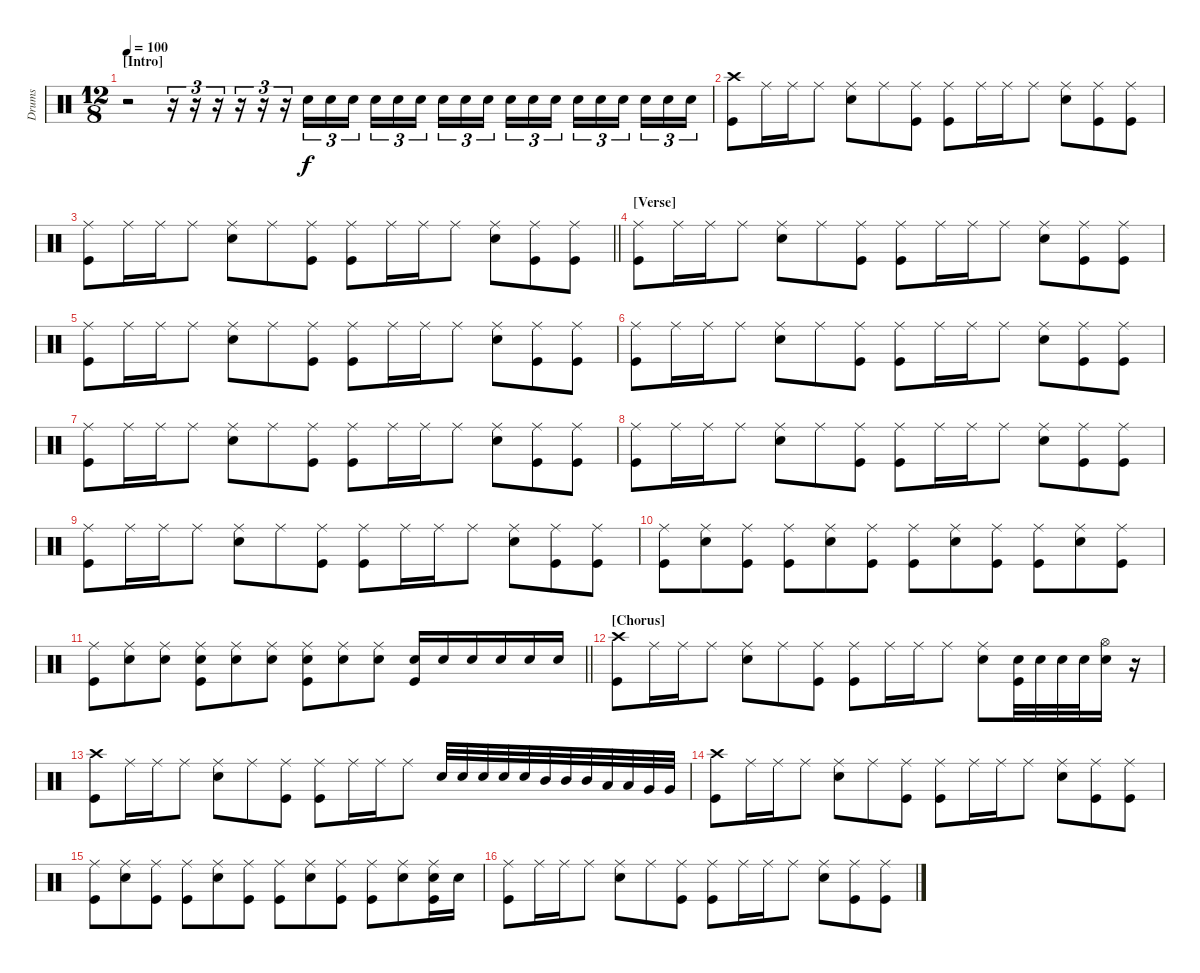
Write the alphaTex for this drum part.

\track ("Drums" "Drums") {instrument percussion}
\staff {score}
\articulation defaults
\ts (12 8)
\section ("" "[Intro]")
\tempo 100
\clef neutral
\ks c
r.2{dy f} r.16{tu (3 2)} r.16{tu (3 2)} r.16{tu (3 2)} r.16{tu (3 2)} r.16{tu (3 2)} r.16{tu (3 2)} "Electric Snare (hit)".16{tu (3 2)} "Electric Snare (hit)".16{tu (3 2)} "Electric Snare (hit)".16{tu (3 2) beam splitsecondary} "Electric Snare (hit)".16{tu (3 2)} "Electric Snare (hit)".16{tu (3 2)} "Electric Snare (hit)".16{tu (3 2) beam splitsecondary} "Electric Snare (hit)".16{tu (3 2)} "Electric Snare (hit)".16{tu (3 2)} "Electric Snare (hit)".16{tu (3 2)} "Electric Snare (hit)".16{tu (3 2)} "Electric Snare (hit)".16{tu (3 2)} "Electric Snare (hit)".16{tu (3 2) beam splitsecondary} "Electric Snare (hit)".16{tu (3 2)} "Electric Snare (hit)".16{tu (3 2)} "Electric Snare (hit)".16{tu (3 2) beam splitsecondary} "Electric Snare (hit)".16{tu (3 2)} "Electric Snare (hit)".16{tu (3 2)} "Electric Snare (hit)".16{tu (3 2)} |
("Crash high (hit)" "Kick (hit)").8 "Ride (middle)".16 "Ride (middle)".16 "Ride (middle)".8 ("Ride (middle)" "Electric Snare (hit)").8 "Ride (middle)".8 ("Ride (middle)" "Kick (hit)").8 ("Ride (middle)" "Kick (hit)").8 "Ride (middle)".16 "Ride (middle)".16 "Ride (middle)".8 ("Ride (middle)" "Electric Snare (hit)").8 ("Ride (middle)" "Kick (hit)").8 ("Ride (middle)" "Kick (hit)").8 |
\barLineRight lightlight
("Ride (middle)" "Kick (hit)").8 "Ride (middle)".16 "Ride (middle)".16 "Ride (middle)".8 ("Ride (middle)" "Electric Snare (hit)").8 "Ride (middle)".8 ("Ride (middle)" "Kick (hit)").8 ("Ride (middle)" "Kick (hit)").8 "Ride (middle)".16 "Ride (middle)".16 "Ride (middle)".8 ("Ride (middle)" "Electric Snare (hit)").8 ("Ride (middle)" "Kick (hit)").8 ("Ride (middle)" "Kick (hit)").8 |
\section ("" "[Verse]")
("Ride (middle)" "Kick (hit)").8 "Ride (middle)".16 "Ride (middle)".16 "Ride (middle)".8 ("Ride (middle)" "Electric Snare (hit)").8 "Ride (middle)".8 ("Ride (middle)" "Kick (hit)").8 ("Ride (middle)" "Kick (hit)").8 "Ride (middle)".16 "Ride (middle)".16 "Ride (middle)".8 ("Ride (middle)" "Electric Snare (hit)").8 ("Ride (middle)" "Kick (hit)").8 ("Ride (middle)" "Kick (hit)").8 |
("Ride (middle)" "Kick (hit)").8 "Ride (middle)".16 "Ride (middle)".16 "Ride (middle)".8 ("Ride (middle)" "Electric Snare (hit)").8 "Ride (middle)".8 ("Ride (middle)" "Kick (hit)").8 ("Ride (middle)" "Kick (hit)").8 "Ride (middle)".16 "Ride (middle)".16 "Ride (middle)".8 ("Ride (middle)" "Electric Snare (hit)").8 ("Ride (middle)" "Kick (hit)").8 ("Ride (middle)" "Kick (hit)").8 |
("Ride (middle)" "Kick (hit)").8 "Ride (middle)".16 "Ride (middle)".16 "Ride (middle)".8 ("Ride (middle)" "Electric Snare (hit)").8 "Ride (middle)".8 ("Ride (middle)" "Kick (hit)").8 ("Ride (middle)" "Kick (hit)").8 "Ride (middle)".16 "Ride (middle)".16 "Ride (middle)".8 ("Ride (middle)" "Electric Snare (hit)").8 ("Ride (middle)" "Kick (hit)").8 ("Ride (middle)" "Kick (hit)").8 |
("Ride (middle)" "Kick (hit)").8 "Ride (middle)".16 "Ride (middle)".16 "Ride (middle)".8 ("Ride (middle)" "Electric Snare (hit)").8 "Ride (middle)".8 ("Ride (middle)" "Kick (hit)").8 ("Ride (middle)" "Kick (hit)").8 "Ride (middle)".16 "Ride (middle)".16 "Ride (middle)".8 ("Ride (middle)" "Electric Snare (hit)").8 ("Ride (middle)" "Kick (hit)").8 ("Ride (middle)" "Kick (hit)").8 |
("Ride (middle)" "Kick (hit)").8 "Ride (middle)".16 "Ride (middle)".16 "Ride (middle)".8 ("Ride (middle)" "Electric Snare (hit)").8 "Ride (middle)".8 ("Ride (middle)" "Kick (hit)").8 ("Ride (middle)" "Kick (hit)").8 "Ride (middle)".16 "Ride (middle)".16 "Ride (middle)".8 ("Ride (middle)" "Electric Snare (hit)").8 ("Ride (middle)" "Kick (hit)").8 ("Ride (middle)" "Kick (hit)").8 |
("Ride (middle)" "Kick (hit)").8 "Ride (middle)".16 "Ride (middle)".16 "Ride (middle)".8 ("Ride (middle)" "Electric Snare (hit)").8 "Ride (middle)".8 ("Ride (middle)" "Kick (hit)").8 ("Ride (middle)" "Kick (hit)").8 "Ride (middle)".16 "Ride (middle)".16 "Ride (middle)".8 ("Ride (middle)" "Electric Snare (hit)").8 ("Ride (middle)" "Kick (hit)").8 ("Ride (middle)" "Kick (hit)").8 |
("Ride (middle)" "Kick (hit)").8 ("Ride (middle)" "Electric Snare (hit)").8 ("Ride (middle)" "Kick (hit)").8 ("Ride (middle)" "Kick (hit)").8 ("Ride (middle)" "Electric Snare (hit)").8 ("Ride (middle)" "Kick (hit)").8 ("Ride (middle)" "Kick (hit)").8 ("Ride (middle)" "Electric Snare (hit)").8 ("Ride (middle)" "Kick (hit)").8 ("Ride (middle)" "Kick (hit)").8 ("Ride (middle)" "Electric Snare (hit)").8 ("Ride (middle)" "Kick (hit)").8 |
\barLineRight lightlight
("Ride (middle)" "Kick (hit)").8 ("Ride (middle)" "Electric Snare (hit)").8 ("Ride (middle)" "Electric Snare (hit)").8 ("Ride (middle)" "Electric Snare (hit)" "Kick (hit)").8 ("Ride (middle)" "Electric Snare (hit)").8 ("Ride (middle)" "Electric Snare (hit)").8 ("Ride (middle)" "Electric Snare (hit)" "Kick (hit)").8 ("Ride (middle)" "Electric Snare (hit)").8 ("Ride (middle)" "Electric Snare (hit)").8 ("Electric Snare (hit)" "Kick (hit)").16 "Electric Snare (hit)".16 "Electric Snare (hit)".16 "Electric Snare (hit)".16 "Electric Snare (hit)".16 "Electric Snare (hit)".16 |
\section ("" "[Chorus]")
("Crash high (hit)" "Kick (hit)").8 "Ride (middle)".16 "Ride (middle)".16 "Ride (middle)".8 ("Ride (middle)" "Electric Snare (hit)").8 "Ride (middle)".8 ("Ride (middle)" "Kick (hit)").8 ("Ride (middle)" "Kick (hit)").8 "Ride (middle)".16 "Ride (middle)".16 "Ride (middle)".8 ("Ride (middle)" "Electric Snare (hit)").8 ("Electric Snare (hit)" "Kick (hit)").32 "Electric Snare (hit)".32 "Electric Snare (hit)".32 "Electric Snare (hit)".32 ("Hi-Hat (open)" "Electric Snare (hit)").16 r.16 |
("Crash high (hit)" "Kick (hit)").8 "Ride (middle)".16 "Ride (middle)".16 "Ride (middle)".8 ("Ride (middle)" "Electric Snare (hit)").8 "Ride (middle)".8 ("Ride (middle)" "Kick (hit)").8 ("Ride (middle)" "Kick (hit)").8 "Ride (middle)".16 "Ride (middle)".16 "Ride (middle)".8 "Electric Snare (hit)".32 "Electric Snare (hit)".32 "Electric Snare (hit)".32 "Electric Snare (hit)".32 "Electric Snare (hit)".32 "Mid Tom (hit)".32 "Mid Tom (hit)".32 "Mid Tom (hit)".32 "Low Tom (hit)".32 "Low Tom (hit)".32 "Very Low Tom (hit)".32 "Very Low Tom (hit)".32 |
("Crash high (hit)" "Kick (hit)").8 "Ride (middle)".16 "Ride (middle)".16 "Ride (middle)".8 ("Ride (middle)" "Electric Snare (hit)").8 "Ride (middle)".8 ("Ride (middle)" "Kick (hit)").8 ("Ride (middle)" "Kick (hit)").8 "Ride (middle)".16 "Ride (middle)".16 "Ride (middle)".8 ("Ride (middle)" "Electric Snare (hit)").8 ("Ride (middle)" "Kick (hit)").8 ("Ride (middle)" "Kick (hit)").8 |
("Ride (middle)" "Kick (hit)").8 ("Ride (middle)" "Electric Snare (hit)").8 ("Ride (middle)" "Kick (hit)").8 ("Ride (middle)" "Kick (hit)").8 ("Ride (middle)" "Electric Snare (hit)").8 ("Ride (middle)" "Kick (hit)").8 ("Ride (middle)" "Kick (hit)").8 ("Ride (middle)" "Electric Snare (hit)").8 ("Ride (middle)" "Kick (hit)").8 ("Ride (middle)" "Kick (hit)").8 ("Ride (middle)" "Electric Snare (hit)").8 ("Ride (middle)" "Electric Snare (hit)" "Kick (hit)").16 "Electric Snare (hit)".16 |
("Ride (middle)" "Kick (hit)").8 "Ride (middle)".16 "Ride (middle)".16 "Ride (middle)".8 ("Ride (middle)" "Electric Snare (hit)").8 "Ride (middle)".8 ("Ride (middle)" "Kick (hit)").8 ("Ride (middle)" "Kick (hit)").8 "Ride (middle)".16 "Ride (middle)".16 "Ride (middle)".8 ("Ride (middle)" "Electric Snare (hit)").8 ("Ride (middle)" "Kick (hit)").8 ("Ride (middle)" "Kick (hit)").8
